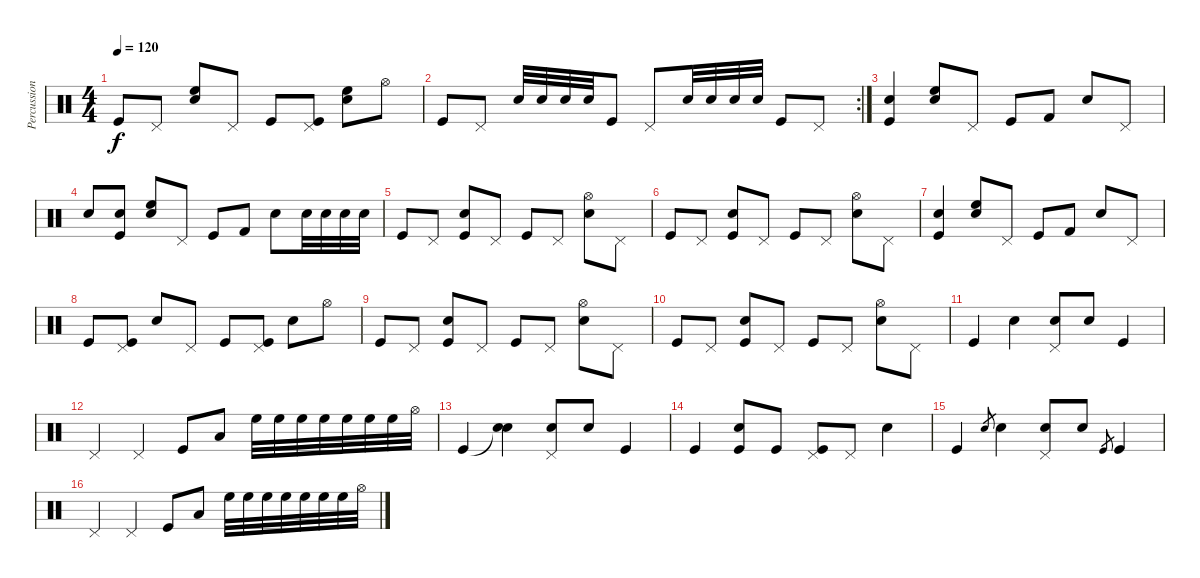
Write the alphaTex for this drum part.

\track ("Percussion" "Percussion") {instrument percussion}
\staff {score}
\articulation defaults
\ts (4 4)
\tempo 120
\clef neutral
\ks c "Kick (hit)".8{dy f} "Pedal Hi-Hat (hit)".8
("Electric Snare (hit)" "High Floor Tom (hit)").8 "Pedal Hi-Hat (hit)".8 "Kick (hit)".8 ("Pedal Hi-Hat (hit)" "Kick (hit)").8 ("Electric Snare (hit)" "High Floor Tom (hit)").8 "Hi-Hat (open)".8 |
\rc 2 "Kick (hit)".8 "Pedal Hi-Hat (hit)".8 "Snare (hit) 2".32 "Snare (hit) 2".32 "Snare (hit) 2".32 "Snare (hit) 2".32 "Kick (hit)".8 "Pedal Hi-Hat (hit)".8 "Snare (hit) 2".32 "Snare (hit) 2".32 "Snare (hit) 2".32 "Snare (hit) 2".32 "Kick (hit)".8 "Pedal Hi-Hat (hit)".8
|
("Kick (hit)" "Snare (hit) 2").4 ("High Floor Tom (hit)" "Electric Snare (hit)").8 "Pedal Hi-Hat (hit)".8 "Kick (hit)".8 "Kick (hit) 2".8 "Electric Snare (hit)".8 "Pedal Hi-Hat (hit)".8 |
"Electric Snare (hit)".8 ("Kick (hit)" "Snare (hit) 2").8 ("High Floor Tom (hit)" "Electric Snare (hit)").8 "Pedal Hi-Hat (hit)".8 "Kick (hit)".8 "Kick (hit) 2".8 "Electric Snare (hit)".8 "Snare (hit) 2".32 "Snare (hit) 2".32 "Snare (hit) 2".32 "Snare (hit) 2".32 |
"Kick (hit)".8 "Pedal Hi-Hat (hit)".8 ("Snare (hit) 2" "Kick (hit)").8 "Pedal Hi-Hat (hit)".8 "Kick (hit)".8 "Pedal Hi-Hat (hit)".8 ("Electric Snare (hit)" "Hi-Hat (open)").8 "Pedal Hi-Hat (hit)".8 |
"Kick (hit)".8 "Pedal Hi-Hat (hit)".8 ("Snare (hit) 2" "Kick (hit)").8 "Pedal Hi-Hat (hit)".8 "Kick (hit)".8 "Pedal Hi-Hat (hit)".8 ("Electric Snare (hit)" "Hi-Hat (open)").8 "Pedal Hi-Hat (hit)".8 |
("Kick (hit)" "Snare (hit) 2").4 ("High Floor Tom (hit)" "Electric Snare (hit)").8 "Pedal Hi-Hat (hit)".8 "Kick (hit)".8 "Kick (hit) 2".8 "Electric Snare (hit)".8 "Pedal Hi-Hat (hit)".8 |
"Kick (hit)".8 ("Pedal Hi-Hat (hit)" "Kick (hit)").8 "Snare (hit) 2".8 "Pedal Hi-Hat (hit)".8 "Kick (hit)".8 ("Pedal Hi-Hat (hit)" "Kick (hit)").8 "Snare (hit) 2".8 "Hi-Hat (open)".8 |
"Kick (hit)".8 "Pedal Hi-Hat (hit)".8 ("Snare (hit) 2" "Kick (hit)").8 "Pedal Hi-Hat (hit)".8 "Kick (hit)".8 "Pedal Hi-Hat (hit)".8 ("Electric Snare (hit)" "Hi-Hat (open)").8 "Pedal Hi-Hat (hit)".8 |
"Kick (hit)".8 "Pedal Hi-Hat (hit)".8 ("Snare (hit) 2" "Kick (hit)").8 "Pedal Hi-Hat (hit)".8 "Kick (hit)".8 "Pedal Hi-Hat (hit)".8 ("Electric Snare (hit)" "Hi-Hat (open)").8 "Pedal Hi-Hat (hit)".8 |
"Kick (hit)".4 "Snare (hit) 2".4 ("Pedal Hi-Hat (hit)" "Snare (hit) 2").8 "Snare (hit) 2".8 "Kick (hit)".4 |
"Pedal Hi-Hat (hit)".4 "Pedal Hi-Hat (hit)".4 "Kick (hit)".8 "Low Tom (hit)".8 "High Floor Tom (hit)".32 "High Floor Tom (hit)".32 "High Floor Tom (hit)".32 "High Floor Tom (hit)".32 "High Floor Tom (hit)".32 "High Floor Tom (hit)".32 "High Floor Tom (hit)".32 "Hi-Hat (open)".32 |
"Kick (hit)".4 ("Snare (hit)"{t} "Snare (hit) 2").4 ("Pedal Hi-Hat (hit)" "Snare (hit) 2").8 "Snare (hit) 2".8 "Kick (hit)".4 |
"Kick (hit)".4 ("Snare (hit) 2" "Kick (hit)").8 "Kick (hit)".8 ("Pedal Hi-Hat (hit)" "Kick (hit)").8 "Pedal Hi-Hat (hit)".8 "Electric Snare (hit)".4 |
"Kick (hit)".4 "Snare (hit) 2".8{gr} "Snare (hit) 2".4 ("Pedal Hi-Hat (hit)" "Snare (hit) 2").8 "Snare (hit) 2".8 "Kick (hit)".8{gr} "Kick (hit)".4 |
"Pedal Hi-Hat (hit)".4 "Pedal Hi-Hat (hit)".4 "Kick (hit)".8 "Low Tom (hit)".8 "High Floor Tom (hit)".32 "High Floor Tom (hit)".32 "High Floor Tom (hit)".32 "High Floor Tom (hit)".32 "High Floor Tom (hit)".32 "High Floor Tom (hit)".32 "High Floor Tom (hit)".32 "Hi-Hat (open)".32
